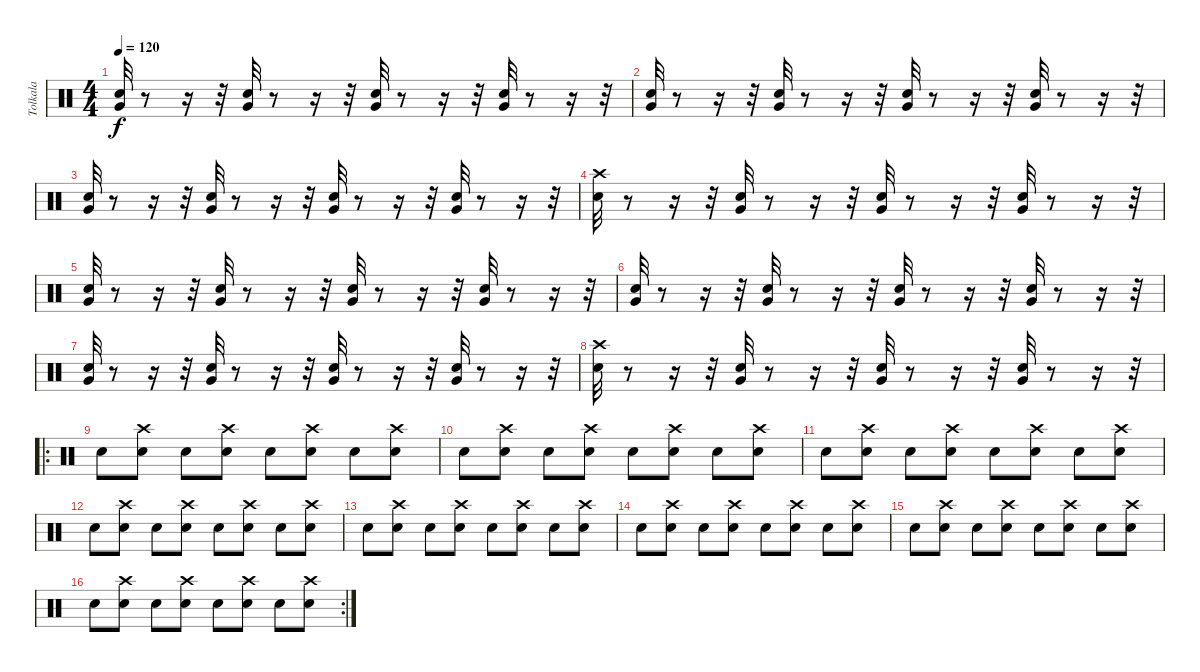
\track ("Tolkala" "Tolkala") {instrument percussion}
\staff {score}
\articulation defaults
\ts (4 4)
\tempo 120
\clef neutral
\ks c
("Very Low Tom (hit)" "Snare (hit) 2").32{dy f} r.8 r.16 r.32 ("Very Low Tom (hit)" "Snare (hit) 2").32 r.8 r.16 r.32 ("Very Low Tom (hit)" "Snare (hit) 2").32 r.8 r.16 r.32 ("Very Low Tom (hit)" "Snare (hit) 2").32 r.8 r.16 r.32 |
("Very Low Tom (hit)" "Snare (hit) 2").32 r.8 r.16 r.32 ("Very Low Tom (hit)" "Snare (hit) 2").32 r.8 r.16 r.32 ("Very Low Tom (hit)" "Snare (hit) 2").32 r.8 r.16 r.32 ("Very Low Tom (hit)" "Snare (hit) 2").32 r.8 r.16 r.32 |
("Very Low Tom (hit)" "Snare (hit) 2").32 r.8 r.16 r.32 ("Very Low Tom (hit)" "Snare (hit) 2").32 r.8 r.16 r.32 ("Very Low Tom (hit)" "Snare (hit) 2").32 r.8 r.16 r.32 ("Very Low Tom (hit)" "Snare (hit) 2").32 r.8 r.16 r.32 |
("Crash high (hit)" "Snare (hit) 2").32 r.8 r.16 r.32 ("Very Low Tom (hit)" "Snare (hit) 2").32 r.8 r.16 r.32 ("Very Low Tom (hit)" "Snare (hit) 2").32 r.8 r.16 r.32 ("Very Low Tom (hit)" "Snare (hit) 2").32 r.8 r.16 r.32 |
("Very Low Tom (hit)" "Snare (hit) 2").32 r.8 r.16 r.32 ("Very Low Tom (hit)" "Snare (hit) 2").32 r.8 r.16 r.32 ("Very Low Tom (hit)" "Snare (hit) 2").32 r.8 r.16 r.32 ("Very Low Tom (hit)" "Snare (hit) 2").32 r.8 r.16 r.32 |
("Very Low Tom (hit)" "Snare (hit) 2").32 r.8 r.16 r.32 ("Very Low Tom (hit)" "Snare (hit) 2").32 r.8 r.16 r.32 ("Very Low Tom (hit)" "Snare (hit) 2").32 r.8 r.16 r.32 ("Very Low Tom (hit)" "Snare (hit) 2").32 r.8 r.16 r.32 |
("Very Low Tom (hit)" "Snare (hit) 2").32 r.8 r.16 r.32 ("Very Low Tom (hit)" "Snare (hit) 2").32 r.8 r.16 r.32 ("Very Low Tom (hit)" "Snare (hit) 2").32 r.8 r.16 r.32 ("Very Low Tom (hit)" "Snare (hit) 2").32 r.8 r.16 r.32 |
("Crash high (hit)" "Snare (hit) 2").32 r.8 r.16 r.32 ("Very Low Tom (hit)" "Snare (hit) 2").32 r.8 r.16 r.32 ("Very Low Tom (hit)" "Snare (hit) 2").32 r.8 r.16 r.32 ("Very Low Tom (hit)" "Snare (hit) 2").32 r.8 r.16 r.32 |
\ro "Snare (hit) 2".8
("Crash high (hit)" "Snare (hit) 2").8 "Snare (hit) 2".8 ("Crash high (hit)" "Snare (hit) 2").8 "Snare (hit) 2".8 ("Crash high (hit)" "Snare (hit) 2").8 "Snare (hit) 2".8 ("Crash high (hit)" "Snare (hit) 2").8 |
"Snare (hit) 2".8 ("Crash high (hit)" "Snare (hit) 2").8 "Snare (hit) 2".8 ("Crash high (hit)" "Snare (hit) 2").8 "Snare (hit) 2".8 ("Crash high (hit)" "Snare (hit) 2").8 "Snare (hit) 2".8 ("Crash high (hit)" "Snare (hit) 2").8 |
"Snare (hit) 2".8 ("Crash high (hit)" "Snare (hit) 2").8 "Snare (hit) 2".8 ("Crash high (hit)" "Snare (hit) 2").8 "Snare (hit) 2".8 ("Crash high (hit)" "Snare (hit) 2").8 "Snare (hit) 2".8 ("Crash high (hit)" "Snare (hit) 2").8 |
"Snare (hit) 2".8 ("Crash high (hit)" "Snare (hit) 2").8 "Snare (hit) 2".8 ("Crash high (hit)" "Snare (hit) 2").8 "Snare (hit) 2".8 ("Crash high (hit)" "Snare (hit) 2").8 "Snare (hit) 2".8 ("Crash high (hit)" "Snare (hit) 2").8 |
"Snare (hit) 2".8 ("Crash high (hit)" "Snare (hit) 2").8 "Snare (hit) 2".8 ("Crash high (hit)" "Snare (hit) 2").8 "Snare (hit) 2".8 ("Crash high (hit)" "Snare (hit) 2").8 "Snare (hit) 2".8 ("Crash high (hit)" "Snare (hit) 2").8 |
"Snare (hit) 2".8 ("Crash high (hit)" "Snare (hit) 2").8 "Snare (hit) 2".8 ("Crash high (hit)" "Snare (hit) 2").8 "Snare (hit) 2".8 ("Crash high (hit)" "Snare (hit) 2").8 "Snare (hit) 2".8 ("Crash high (hit)" "Snare (hit) 2").8 |
"Snare (hit) 2".8 ("Crash high (hit)" "Snare (hit) 2").8 "Snare (hit) 2".8 ("Crash high (hit)" "Snare (hit) 2").8 "Snare (hit) 2".8 ("Crash high (hit)" "Snare (hit) 2").8 "Snare (hit) 2".8 ("Crash high (hit)" "Snare (hit) 2").8 |
\rc 2 "Snare (hit) 2".8
("Crash high (hit)" "Snare (hit) 2").8 "Snare (hit) 2".8 ("Crash high (hit)" "Snare (hit) 2").8 "Snare (hit) 2".8 ("Crash high (hit)" "Snare (hit) 2").8 "Snare (hit) 2".8 ("Crash high (hit)" "Snare (hit) 2").8
